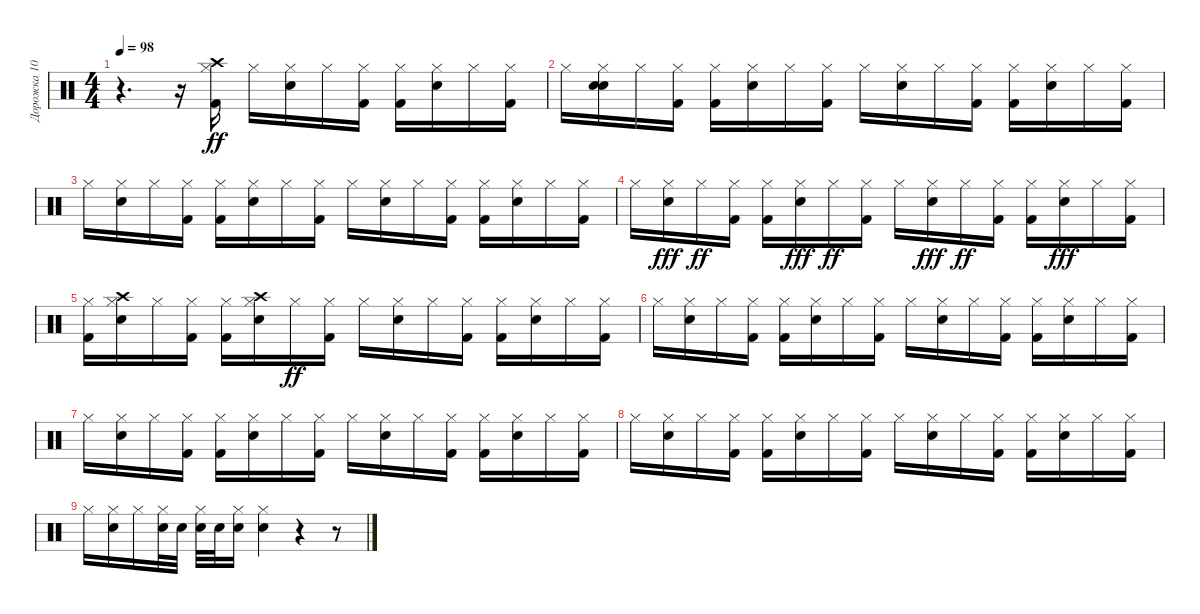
\track ("Дорожка 10" "Дорожка 10") {instrument percussion}
\staff {score}
\articulation defaults
\ts (4 4)
\tempo 98
\clef neutral
\ks c
r.4{d dy ff} r.16 ("Hi-Hat (closed)" "Crash high (hit)" "Kick (hit) 2").16 "Hi-Hat (closed)".16 ("Hi-Hat (closed)" "Snare (hit) 2").16 "Hi-Hat (closed)".16 ("Hi-Hat (closed)" "Kick (hit) 2").16 ("Hi-Hat (closed)" "Kick (hit) 2").16 ("Hi-Hat (closed)" "Snare (hit) 2").16 "Hi-Hat (closed)".16 ("Hi-Hat (closed)" "Kick (hit) 2").16 |
"Hi-Hat (closed)".16 ("Hi-Hat (closed)" "Snare (hit) 2" "Snare (hit) 2").16 "Hi-Hat (closed)".16 ("Hi-Hat (closed)" "Kick (hit) 2").16 ("Hi-Hat (closed)" "Kick (hit) 2").16 ("Hi-Hat (closed)" "Snare (hit) 2").16 "Hi-Hat (closed)".16 ("Hi-Hat (closed)" "Kick (hit) 2").16 "Hi-Hat (closed)".16 ("Hi-Hat (closed)" "Snare (hit) 2").16 "Hi-Hat (closed)".16 ("Hi-Hat (closed)" "Kick (hit) 2").16 ("Hi-Hat (closed)" "Kick (hit) 2").16 ("Hi-Hat (closed)" "Snare (hit) 2").16 "Hi-Hat (closed)".16 ("Hi-Hat (closed)" "Kick (hit) 2").16 |
"Hi-Hat (closed)".16 ("Hi-Hat (closed)" "Snare (hit) 2").16 "Hi-Hat (closed)".16 ("Hi-Hat (closed)" "Kick (hit) 2").16 ("Hi-Hat (closed)" "Kick (hit) 2").16 ("Hi-Hat (closed)" "Snare (hit) 2").16 "Hi-Hat (closed)".16 ("Hi-Hat (closed)" "Kick (hit) 2").16 "Hi-Hat (closed)".16 ("Hi-Hat (closed)" "Snare (hit) 2").16 "Hi-Hat (closed)".16 ("Hi-Hat (closed)" "Kick (hit) 2").16 ("Hi-Hat (closed)" "Kick (hit) 2").16 ("Hi-Hat (closed)" "Snare (hit) 2").16 "Hi-Hat (closed)".16 ("Hi-Hat (closed)" "Kick (hit) 2").16 |
"Hi-Hat (closed)".16 ("Hi-Hat (closed)" "Snare (hit) 2").16{dy fff} "Hi-Hat (closed)".16{dy ff} ("Hi-Hat (closed)" "Kick (hit) 2").16 ("Hi-Hat (closed)" "Kick (hit) 2").16 ("Hi-Hat (closed)" "Snare (hit) 2").16{dy fff} "Hi-Hat (closed)".16{dy ff} ("Hi-Hat (closed)" "Kick (hit) 2").16 "Hi-Hat (closed)".16 ("Hi-Hat (closed)" "Snare (hit) 2").16{dy fff} "Hi-Hat (closed)".16{dy ff} ("Hi-Hat (closed)" "Kick (hit) 2").16 ("Hi-Hat (closed)" "Kick (hit) 2").16 ("Snare (hit) 2" "Hi-Hat (closed)").16{dy fff} "Hi-Hat (closed)".16 ("Hi-Hat (closed)" "Kick (hit) 2").16 |
("Hi-Hat (closed)" "Kick (hit) 2").16 ("Hi-Hat (closed)" "Snare (hit) 2" "Crash high (hit)").16 "Hi-Hat (closed)".16 ("Hi-Hat (closed)" "Kick (hit) 2").16 ("Hi-Hat (closed)" "Kick (hit) 2").16 ("Snare (hit) 2" "Crash high (hit)" "Hi-Hat (closed)").16 "Hi-Hat (closed)".16{dy ff} ("Hi-Hat (closed)" "Kick (hit) 2").16 "Hi-Hat (closed)".16 ("Hi-Hat (closed)" "Snare (hit) 2").16 "Hi-Hat (closed)".16 ("Hi-Hat (closed)" "Kick (hit) 2").16 ("Hi-Hat (closed)" "Kick (hit) 2").16 ("Hi-Hat (closed)" "Snare (hit) 2").16 "Hi-Hat (closed)".16 ("Hi-Hat (closed)" "Kick (hit) 2").16 |
"Hi-Hat (closed)".16 ("Hi-Hat (closed)" "Snare (hit) 2").16 "Hi-Hat (closed)".16 ("Hi-Hat (closed)" "Kick (hit) 2").16 ("Hi-Hat (closed)" "Kick (hit) 2").16 ("Hi-Hat (closed)" "Snare (hit) 2").16 "Hi-Hat (closed)".16 ("Hi-Hat (closed)" "Kick (hit) 2").16 "Hi-Hat (closed)".16 ("Hi-Hat (closed)" "Snare (hit) 2").16 "Hi-Hat (closed)".16 ("Hi-Hat (closed)" "Kick (hit) 2").16 ("Hi-Hat (closed)" "Kick (hit) 2").16 ("Hi-Hat (closed)" "Snare (hit) 2").16 "Hi-Hat (closed)".16 ("Hi-Hat (closed)" "Kick (hit) 2").16 |
"Hi-Hat (closed)".16 ("Hi-Hat (closed)" "Snare (hit) 2").16 "Hi-Hat (closed)".16 ("Hi-Hat (closed)" "Kick (hit) 2").16 ("Hi-Hat (closed)" "Kick (hit) 2").16 ("Hi-Hat (closed)" "Snare (hit) 2").16 "Hi-Hat (closed)".16 ("Hi-Hat (closed)" "Kick (hit) 2").16 "Hi-Hat (closed)".16 ("Hi-Hat (closed)" "Snare (hit) 2").16 "Hi-Hat (closed)".16 ("Hi-Hat (closed)" "Kick (hit) 2").16 ("Hi-Hat (closed)" "Kick (hit) 2").16 ("Hi-Hat (closed)" "Snare (hit) 2").16 "Hi-Hat (closed)".16 ("Hi-Hat (closed)" "Kick (hit) 2").16 |
"Hi-Hat (closed)".16 ("Hi-Hat (closed)" "Snare (hit) 2").16 "Hi-Hat (closed)".16 ("Hi-Hat (closed)" "Kick (hit) 2").16 ("Hi-Hat (closed)" "Kick (hit) 2").16 ("Hi-Hat (closed)" "Snare (hit) 2").16 "Hi-Hat (closed)".16 ("Hi-Hat (closed)" "Kick (hit) 2").16 "Hi-Hat (closed)".16 ("Hi-Hat (closed)" "Snare (hit) 2").16 "Hi-Hat (closed)".16 ("Hi-Hat (closed)" "Kick (hit) 2").16 ("Hi-Hat (closed)" "Kick (hit) 2").16 ("Hi-Hat (closed)" "Snare (hit) 2").16 "Hi-Hat (closed)".16 ("Hi-Hat (closed)" "Kick (hit) 2").16 |
"Hi-Hat (closed)".16 ("Hi-Hat (closed)" "Snare (hit) 2").16 "Hi-Hat (closed)".16 ("Hi-Hat (closed)" "Snare (hit) 2").32 "Snare (hit) 2".32 ("Hi-Hat (closed)" "Snare (hit) 2").32 "Snare (hit) 2".32 ("Snare (hit) 2" "Hi-Hat (closed)").16 ("Hi-Hat (closed)" "Snare (hit) 2").4 r.4 r.8
